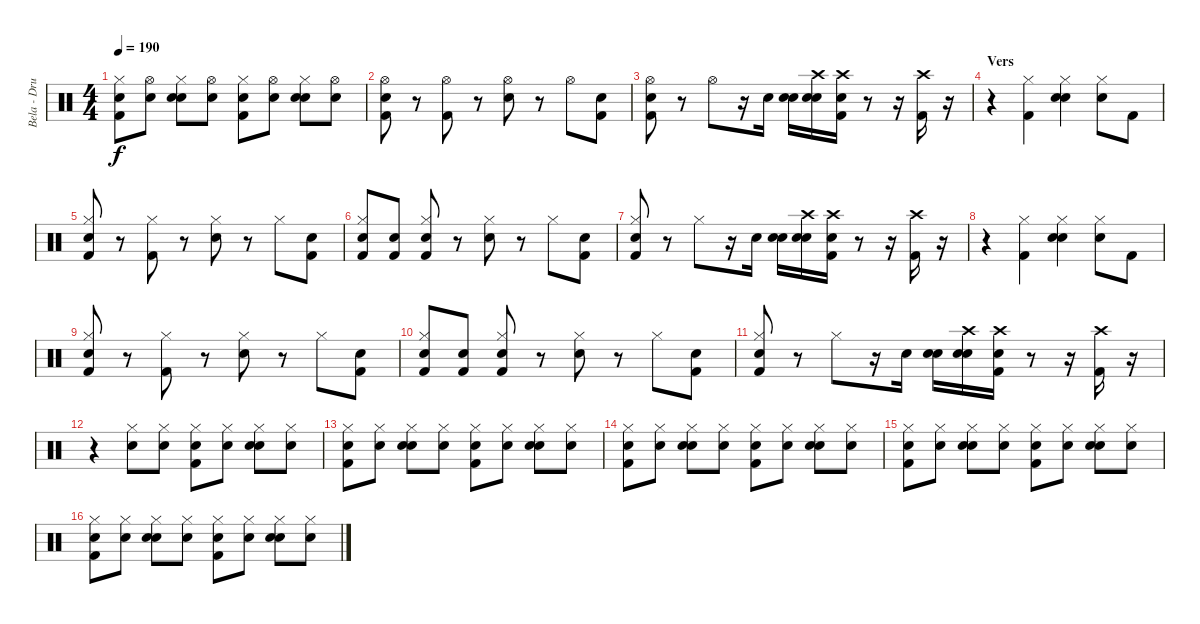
\track ("Bela - Drums" "Bela - Dru") {instrument percussion}
\staff {score}
\articulation defaults
\ts (4 4)
\tempo 190
\clef neutral
\ks c
("Snare (hit)" "Hi-Hat (closed)" "Kick (hit) 2").8{dy f} ("Snare (hit)" "Hi-Hat (open)").8 ("Snare (hit)" "Hi-Hat (closed)" "Snare (hit) 2").8 ("Snare (hit)" "Hi-Hat (open)").8 ("Snare (hit)" "Hi-Hat (closed)" "Kick (hit) 2").8 ("Snare (hit)" "Hi-Hat (open)").8 ("Snare (hit)" "Hi-Hat (closed)" "Snare (hit) 2").8 ("Snare (hit)" "Hi-Hat (open)").8 |
("Snare (hit)" "Hi-Hat (open)" "Kick (hit) 2").8 r.8 ("Hi-Hat (open)" "Kick (hit) 2").8 r.8 ("Hi-Hat (open)" "Electric Snare (hit)").8 r.8 "Hi-Hat (open)".8 ("Snare (hit)" "Kick (hit) 2").8 |
("Snare (hit)" "Kick (hit) 2" "Hi-Hat (open)").8 r.8 "Hi-Hat (open)".8 r.16 "Electric Snare (hit)".16 ("Snare (hit)" "Electric Snare (hit)").16 ("Snare (hit)" "Crash high (hit)" "Electric Snare (hit)").16 ("Snare (hit)" "Crash high (hit)" "Kick (hit) 2").16 r.8 r.16 ("Kick (hit) 2" "Crash high (hit)").16 r.16 |
\section ("" "Vers")
r.4 ("Hi-Hat (closed)" "Kick (hit) 2").4 ("Snare (hit)" "Hi-Hat (closed)" "Electric Snare (hit)").4 ("Snare (hit)" "Hi-Hat (closed)").8 "Kick (hit) 2".8 |
("Snare (hit)" "Hi-Hat (closed)" "Kick (hit) 2").8 r.8 ("Hi-Hat (closed)" "Kick (hit) 2").8 r.8 ("Hi-Hat (closed)" "Electric Snare (hit)").8 r.8 "Hi-Hat (closed)".8 ("Snare (hit)" "Kick (hit) 2").8 |
("Snare (hit)" "Hi-Hat (closed)" "Kick (hit) 2").8 ("Snare (hit)" "Kick (hit) 2").8 ("Snare (hit)" "Hi-Hat (closed)" "Kick (hit) 2").8 r.8 ("Hi-Hat (closed)" "Electric Snare (hit)").8 r.8 "Hi-Hat (closed)".8 ("Snare (hit)" "Kick (hit) 2").8 |
("Snare (hit)" "Hi-Hat (closed)" "Kick (hit) 2").8 r.8 "Hi-Hat (closed)".8 r.16 "Electric Snare (hit)".16 ("Snare (hit)" "Electric Snare (hit)").16 ("Snare (hit)" "Crash high (hit)" "Electric Snare (hit)").16 ("Snare (hit)" "Crash high (hit)" "Kick (hit) 2").16 r.8 r.16 ("Crash high (hit)" "Kick (hit) 2").16 r.16 |
r.4 ("Hi-Hat (closed)" "Kick (hit) 2").4 ("Snare (hit)" "Hi-Hat (closed)" "Electric Snare (hit)").4 ("Snare (hit)" "Hi-Hat (closed)").8 "Kick (hit) 2".8 |
("Snare (hit)" "Hi-Hat (closed)" "Kick (hit) 2").8 r.8 ("Hi-Hat (closed)" "Kick (hit) 2").8 r.8 ("Hi-Hat (closed)" "Electric Snare (hit)").8 r.8 "Hi-Hat (closed)".8 ("Snare (hit)" "Kick (hit) 2").8 |
("Snare (hit)" "Hi-Hat (closed)" "Kick (hit) 2").8 ("Snare (hit)" "Kick (hit) 2").8 ("Snare (hit)" "Hi-Hat (closed)" "Kick (hit) 2").8 r.8 ("Hi-Hat (closed)" "Electric Snare (hit)").8 r.8 "Hi-Hat (closed)".8 ("Snare (hit)" "Kick (hit) 2").8 |
("Snare (hit)" "Hi-Hat (closed)" "Kick (hit) 2").8 r.8 "Hi-Hat (closed)".8 r.16 "Electric Snare (hit)".16 ("Snare (hit)" "Electric Snare (hit)").16 ("Snare (hit)" "Crash high (hit)" "Electric Snare (hit)").16 ("Snare (hit)" "Crash high (hit)" "Kick (hit) 2").16 r.8 r.16 ("Kick (hit) 2" "Crash high (hit)").16 r.16 |
r.4 ("Hi-Hat (closed)" "Electric Snare (hit)").8 ("Snare (hit)" "Hi-Hat (closed)").8 ("Snare (hit)" "Hi-Hat (closed)" "Kick (hit) 2").8 ("Snare (hit)" "Hi-Hat (closed)").8 ("Snare (hit)" "Hi-Hat (closed)" "Electric Snare (hit)").8 ("Snare (hit)" "Hi-Hat (closed)").8 |
("Snare (hit)" "Hi-Hat (closed)" "Kick (hit) 2").8 ("Snare (hit)" "Hi-Hat (closed)").8 ("Snare (hit)" "Hi-Hat (closed)" "Electric Snare (hit)").8 ("Snare (hit)" "Hi-Hat (closed)").8 ("Snare (hit)" "Hi-Hat (closed)" "Kick (hit) 2").8 ("Snare (hit)" "Hi-Hat (closed)").8 ("Snare (hit)" "Hi-Hat (closed)" "Electric Snare (hit)").8 ("Snare (hit)" "Hi-Hat (closed)").8 |
("Snare (hit)" "Hi-Hat (closed)" "Kick (hit) 2").8 ("Snare (hit)" "Hi-Hat (closed)").8 ("Snare (hit)" "Hi-Hat (closed)" "Electric Snare (hit)").8 ("Snare (hit)" "Hi-Hat (closed)").8 ("Snare (hit)" "Hi-Hat (closed)" "Kick (hit) 2").8 ("Snare (hit)" "Hi-Hat (closed)").8 ("Snare (hit)" "Hi-Hat (closed)" "Electric Snare (hit)").8 ("Snare (hit)" "Hi-Hat (closed)").8 |
("Snare (hit)" "Hi-Hat (closed)" "Kick (hit) 2").8 ("Snare (hit)" "Hi-Hat (closed)").8 ("Snare (hit)" "Hi-Hat (closed)" "Electric Snare (hit)").8 ("Snare (hit)" "Hi-Hat (closed)").8 ("Snare (hit)" "Hi-Hat (closed)" "Kick (hit) 2").8 ("Snare (hit)" "Hi-Hat (closed)").8 ("Snare (hit)" "Hi-Hat (closed)" "Electric Snare (hit)").8 ("Snare (hit)" "Hi-Hat (closed)").8 |
("Snare (hit)" "Hi-Hat (closed)" "Kick (hit) 2").8 ("Snare (hit)" "Hi-Hat (closed)").8 ("Snare (hit)" "Hi-Hat (closed)" "Electric Snare (hit)").8 ("Snare (hit)" "Hi-Hat (closed)").8 ("Snare (hit)" "Hi-Hat (closed)" "Kick (hit) 2").8 ("Snare (hit)" "Hi-Hat (closed)").8 ("Snare (hit)" "Hi-Hat (closed)" "Electric Snare (hit)").8 ("Snare (hit)" "Hi-Hat (closed)").8
